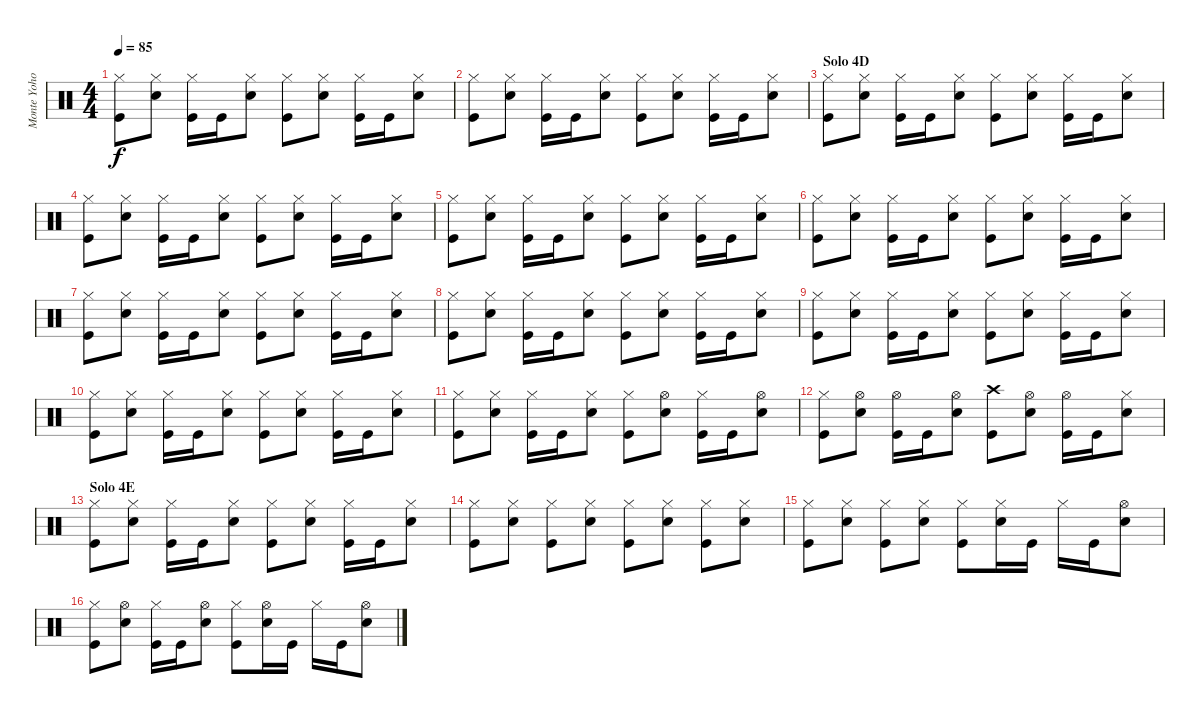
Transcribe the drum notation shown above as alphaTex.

\track ("Monte Yoho - Drums" "Monte Yoho") {instrument percussion}
\staff {score}
\articulation defaults
\ts (4 4)
\tempo 85
\clef neutral
\ks c
("Hi-Hat (closed)" "Kick (hit)").8{dy f} ("Hi-Hat (closed)" "Snare (hit) 2").8 ("Hi-Hat (closed)" "Kick (hit)").16 "Kick (hit)".16 ("Hi-Hat (closed)" "Snare (hit) 2").8 ("Hi-Hat (closed)" "Kick (hit)").8 ("Hi-Hat (closed)" "Snare (hit) 2").8 ("Hi-Hat (closed)" "Kick (hit)").16 "Kick (hit)".16 ("Hi-Hat (closed)" "Snare (hit) 2").8 |
("Hi-Hat (closed)" "Kick (hit)").8 ("Hi-Hat (closed)" "Snare (hit) 2").8 ("Hi-Hat (closed)" "Kick (hit)").16 "Kick (hit)".16 ("Hi-Hat (closed)" "Snare (hit) 2").8 ("Hi-Hat (closed)" "Kick (hit)").8 ("Hi-Hat (closed)" "Snare (hit) 2").8 ("Hi-Hat (closed)" "Kick (hit)").16 "Kick (hit)".16 ("Hi-Hat (closed)" "Snare (hit) 2").8 |
\section ("" "Solo 4D")
("Hi-Hat (closed)" "Kick (hit)").8 ("Hi-Hat (closed)" "Snare (hit) 2").8 ("Hi-Hat (closed)" "Kick (hit)").16 "Kick (hit)".16 ("Hi-Hat (closed)" "Snare (hit) 2").8 ("Hi-Hat (closed)" "Kick (hit)").8 ("Hi-Hat (closed)" "Snare (hit) 2").8 ("Hi-Hat (closed)" "Kick (hit)").16 "Kick (hit)".16 ("Hi-Hat (closed)" "Snare (hit) 2").8 |
("Hi-Hat (closed)" "Kick (hit)").8 ("Hi-Hat (closed)" "Snare (hit) 2").8 ("Hi-Hat (closed)" "Kick (hit)").16 "Kick (hit)".16 ("Hi-Hat (closed)" "Snare (hit) 2").8 ("Hi-Hat (closed)" "Kick (hit)").8 ("Hi-Hat (closed)" "Snare (hit) 2").8 ("Hi-Hat (closed)" "Kick (hit)").16 "Kick (hit)".16 ("Hi-Hat (closed)" "Snare (hit) 2").8 |
("Hi-Hat (closed)" "Kick (hit)").8 ("Hi-Hat (closed)" "Snare (hit) 2").8 ("Hi-Hat (closed)" "Kick (hit)").16 "Kick (hit)".16 ("Hi-Hat (closed)" "Snare (hit) 2").8 ("Hi-Hat (closed)" "Kick (hit)").8 ("Hi-Hat (closed)" "Snare (hit) 2").8 ("Hi-Hat (closed)" "Kick (hit)").16 "Kick (hit)".16 ("Hi-Hat (closed)" "Snare (hit) 2").8 |
("Hi-Hat (closed)" "Kick (hit)").8 ("Hi-Hat (closed)" "Snare (hit) 2").8 ("Hi-Hat (closed)" "Kick (hit)").16 "Kick (hit)".16 ("Hi-Hat (closed)" "Snare (hit) 2").8 ("Hi-Hat (closed)" "Kick (hit)").8 ("Hi-Hat (closed)" "Snare (hit) 2").8 ("Hi-Hat (closed)" "Kick (hit)").16 "Kick (hit)".16 ("Hi-Hat (closed)" "Snare (hit) 2").8 |
("Hi-Hat (closed)" "Kick (hit)").8 ("Hi-Hat (closed)" "Snare (hit) 2").8 ("Hi-Hat (closed)" "Kick (hit)").16 "Kick (hit)".16 ("Hi-Hat (closed)" "Snare (hit) 2").8 ("Hi-Hat (closed)" "Kick (hit)").8 ("Hi-Hat (closed)" "Snare (hit) 2").8 ("Hi-Hat (closed)" "Kick (hit)").16 "Kick (hit)".16 ("Hi-Hat (closed)" "Snare (hit) 2").8 |
("Hi-Hat (closed)" "Kick (hit)").8 ("Hi-Hat (closed)" "Snare (hit) 2").8 ("Hi-Hat (closed)" "Kick (hit)").16 "Kick (hit)".16 ("Hi-Hat (closed)" "Snare (hit) 2").8 ("Hi-Hat (closed)" "Kick (hit)").8 ("Hi-Hat (closed)" "Snare (hit) 2").8 ("Hi-Hat (closed)" "Kick (hit)").16 "Kick (hit)".16 ("Hi-Hat (closed)" "Snare (hit) 2").8 |
("Hi-Hat (closed)" "Kick (hit)").8 ("Hi-Hat (closed)" "Snare (hit) 2").8 ("Hi-Hat (closed)" "Kick (hit)").16 "Kick (hit)".16 ("Hi-Hat (closed)" "Snare (hit) 2").8 ("Hi-Hat (closed)" "Kick (hit)").8 ("Hi-Hat (closed)" "Snare (hit) 2").8 ("Hi-Hat (closed)" "Kick (hit)").16 "Kick (hit)".16 ("Hi-Hat (closed)" "Snare (hit) 2").8 |
("Hi-Hat (closed)" "Kick (hit)").8 ("Hi-Hat (closed)" "Snare (hit) 2").8 ("Hi-Hat (closed)" "Kick (hit)").16 "Kick (hit)".16 ("Hi-Hat (closed)" "Snare (hit) 2").8 ("Hi-Hat (closed)" "Kick (hit)").8 ("Hi-Hat (closed)" "Snare (hit) 2").8 ("Hi-Hat (closed)" "Kick (hit)").16 "Kick (hit)".16 ("Hi-Hat (closed)" "Snare (hit) 2").8 |
("Hi-Hat (closed)" "Kick (hit)").8 ("Hi-Hat (closed)" "Snare (hit) 2").8 ("Hi-Hat (closed)" "Kick (hit)").16 "Kick (hit)".16 ("Hi-Hat (closed)" "Snare (hit) 2").8 ("Hi-Hat (closed)" "Kick (hit)").8 ("Hi-Hat (open)" "Snare (hit) 2").8 ("Hi-Hat (closed)" "Kick (hit)").16 "Kick (hit)".16 ("Hi-Hat (open)" "Snare (hit) 2").8 |
("Hi-Hat (closed)" "Kick (hit)").8 ("Hi-Hat (open)" "Snare (hit) 2").8 ("Hi-Hat (open)" "Kick (hit)").16 "Kick (hit)".16 ("Hi-Hat (open)" "Snare (hit) 2").8 ("Crash high (hit)" "Kick (hit)").8 ("Hi-Hat (open)" "Snare (hit) 2").8 ("Hi-Hat (open)" "Kick (hit)").16 "Kick (hit)".16 ("Hi-Hat (closed)" "Snare (hit) 2").8 |
\section ("" "Solo 4E")
("Hi-Hat (closed)" "Kick (hit)").8 ("Hi-Hat (closed)" "Snare (hit) 2").8 ("Hi-Hat (closed)" "Kick (hit)").16 "Kick (hit)".16 ("Hi-Hat (closed)" "Snare (hit) 2").8 ("Hi-Hat (closed)" "Kick (hit)").8 ("Hi-Hat (closed)" "Snare (hit) 2").8 ("Hi-Hat (closed)" "Kick (hit)").16 "Kick (hit)".16 ("Hi-Hat (closed)" "Snare (hit) 2").8 |
("Hi-Hat (closed)" "Kick (hit)").8 ("Hi-Hat (closed)" "Snare (hit) 2").8 ("Hi-Hat (closed)" "Kick (hit)").8 ("Hi-Hat (closed)" "Snare (hit) 2").8 ("Hi-Hat (closed)" "Kick (hit)").8 ("Hi-Hat (closed)" "Snare (hit) 2").8 ("Hi-Hat (closed)" "Kick (hit)").8 ("Hi-Hat (closed)" "Snare (hit) 2").8 |
("Hi-Hat (closed)" "Kick (hit)").8 ("Hi-Hat (closed)" "Snare (hit) 2").8 ("Hi-Hat (closed)" "Kick (hit)").8 ("Hi-Hat (closed)" "Snare (hit) 2").8 ("Hi-Hat (closed)" "Kick (hit)").8 ("Hi-Hat (closed)" "Snare (hit) 2").16 "Kick (hit)".16 "Hi-Hat (closed)".16 "Kick (hit)".16 ("Hi-Hat (open)" "Snare (hit) 2").8 |
("Hi-Hat (closed)" "Kick (hit)").8 ("Hi-Hat (open)" "Snare (hit) 2").8 ("Hi-Hat (closed)" "Kick (hit)").16 "Kick (hit)".16 ("Hi-Hat (open)" "Snare (hit) 2").8 ("Hi-Hat (closed)" "Kick (hit)").8 ("Hi-Hat (open)" "Snare (hit) 2").16 "Kick (hit)".16 "Hi-Hat (closed)".16 "Kick (hit)".16 ("Hi-Hat (open)" "Snare (hit) 2").8
